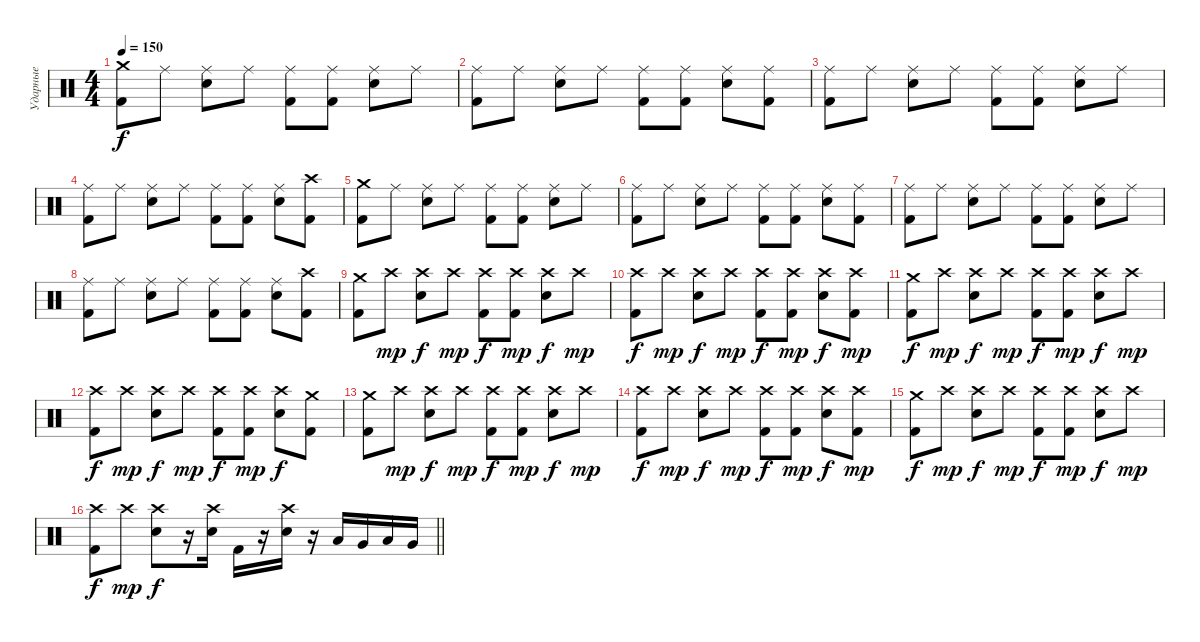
\track ("Ударные" "Ударные") {instrument percussion}
\staff {score}
\articulation defaults
\ts (4 4)
\tempo 150
\clef neutral
\ks c
("Crash medium (hit)" "Kick (hit) 2").8{dy f} "Ride (middle)".8 ("Ride (middle)" "Electric Snare (hit)").8 "Ride (middle)".8 ("Ride (middle)" "Kick (hit) 2").8 ("Ride (middle)" "Kick (hit) 2").8 ("Ride (middle)" "Electric Snare (hit)").8 "Ride (middle)".8 |
("Ride (middle)" "Kick (hit) 2").8 "Ride (middle)".8 ("Ride (middle)" "Electric Snare (hit)").8 "Ride (middle)".8 ("Ride (middle)" "Kick (hit) 2").8 ("Ride (middle)" "Kick (hit) 2").8 ("Ride (middle)" "Electric Snare (hit)").8 ("Ride (middle)" "Kick (hit) 2").8 |
("Ride (middle)" "Kick (hit) 2").8 "Ride (middle)".8 ("Ride (middle)" "Electric Snare (hit)").8 "Ride (middle)".8 ("Ride (middle)" "Kick (hit) 2").8 ("Ride (middle)" "Kick (hit) 2").8 ("Ride (middle)" "Electric Snare (hit)").8 "Ride (middle)".8 |
("Ride (middle)" "Kick (hit) 2").8 "Ride (middle)".8 ("Ride (middle)" "Electric Snare (hit)").8 "Ride (middle)".8 ("Ride (middle)" "Kick (hit) 2").8 ("Ride (middle)" "Kick (hit) 2").8 ("Ride (middle)" "Electric Snare (hit)").8 ("Crash high (hit)" "Kick (hit) 2").8 |
("Crash medium (hit)" "Kick (hit) 2").8 "Ride (middle)".8 ("Ride (middle)" "Electric Snare (hit)").8 "Ride (middle)".8 ("Ride (middle)" "Kick (hit) 2").8 ("Ride (middle)" "Kick (hit) 2").8 ("Ride (middle)" "Electric Snare (hit)").8 "Ride (middle)".8 |
("Ride (middle)" "Kick (hit) 2").8 "Ride (middle)".8 ("Ride (middle)" "Electric Snare (hit)").8 "Ride (middle)".8 ("Ride (middle)" "Kick (hit) 2").8 ("Ride (middle)" "Kick (hit) 2").8 ("Ride (middle)" "Electric Snare (hit)").8 ("Ride (middle)" "Kick (hit) 2").8 |
("Ride (middle)" "Kick (hit) 2").8 "Ride (middle)".8 ("Ride (middle)" "Electric Snare (hit)").8 "Ride (middle)".8 ("Ride (middle)" "Kick (hit) 2").8 ("Ride (middle)" "Kick (hit) 2").8 ("Ride (middle)" "Electric Snare (hit)").8 "Ride (middle)".8 |
("Ride (middle)" "Kick (hit) 2").8 "Ride (middle)".8 ("Ride (middle)" "Electric Snare (hit)").8 "Ride (middle)".8 ("Ride (middle)" "Kick (hit) 2").8 ("Ride (middle)" "Kick (hit) 2").8 ("Ride (middle)" "Electric Snare (hit)").8 ("Crash high (hit)" "Kick (hit) 2").8 |
("Crash medium (hit)" "Kick (hit) 2").8 "Crash high (hit)".8{dy mp} ("Crash high (hit)" "Electric Snare (hit)").8{dy f} "Crash high (hit)".8{dy mp} ("Crash high (hit)" "Kick (hit) 2").8{dy f} ("Crash high (hit)" "Kick (hit) 2").8{dy mp} ("Crash high (hit)" "Electric Snare (hit)").8{dy f} "Crash high (hit)".8{dy mp} |
("Crash high (hit)" "Kick (hit) 2").8{dy f} "Crash high (hit)".8{dy mp} ("Crash high (hit)" "Electric Snare (hit)").8{dy f} "Crash high (hit)".8{dy mp} ("Crash high (hit)" "Kick (hit) 2").8{dy f} ("Crash high (hit)" "Kick (hit) 2").8{dy mp} ("Crash high (hit)" "Electric Snare (hit)").8{dy f} ("Crash high (hit)" "Kick (hit) 2").8{dy mp} |
("Crash medium (hit)" "Kick (hit) 2").8{dy f} "Crash high (hit)".8{dy mp} ("Crash high (hit)" "Electric Snare (hit)").8{dy f} "Crash high (hit)".8{dy mp} ("Crash high (hit)" "Kick (hit) 2").8{dy f} ("Crash high (hit)" "Kick (hit) 2").8{dy mp} ("Crash high (hit)" "Electric Snare (hit)").8{dy f} "Crash high (hit)".8{dy mp} |
("Crash high (hit)" "Kick (hit) 2").8{dy f} "Crash high (hit)".8{dy mp} ("Crash high (hit)" "Electric Snare (hit)").8{dy f} "Crash high (hit)".8{dy mp} ("Crash high (hit)" "Kick (hit) 2").8{dy f} ("Crash high (hit)" "Kick (hit) 2").8{dy mp} ("Crash high (hit)" "Electric Snare (hit)").8{dy f} ("Crash medium (hit)" "Kick (hit) 2").8 |
("Crash medium (hit)" "Kick (hit) 2").8 "Crash high (hit)".8{dy mp} ("Crash high (hit)" "Electric Snare (hit)").8{dy f} "Crash high (hit)".8{dy mp} ("Crash high (hit)" "Kick (hit) 2").8{dy f} ("Crash high (hit)" "Kick (hit) 2").8{dy mp} ("Crash high (hit)" "Electric Snare (hit)").8{dy f} "Crash high (hit)".8{dy mp} |
("Crash high (hit)" "Kick (hit) 2").8{dy f} "Crash high (hit)".8{dy mp} ("Crash high (hit)" "Electric Snare (hit)").8{dy f} "Crash high (hit)".8{dy mp} ("Crash high (hit)" "Kick (hit) 2").8{dy f} ("Crash high (hit)" "Kick (hit) 2").8{dy mp} ("Crash high (hit)" "Electric Snare (hit)").8{dy f} ("Crash high (hit)" "Kick (hit) 2").8{dy mp} |
("Crash medium (hit)" "Kick (hit) 2").8{dy f} "Crash high (hit)".8{dy mp} ("Crash high (hit)" "Electric Snare (hit)").8{dy f} "Crash high (hit)".8{dy mp} ("Crash high (hit)" "Kick (hit) 2").8{dy f} ("Crash high (hit)" "Kick (hit) 2").8{dy mp} ("Crash high (hit)" "Electric Snare (hit)").8{dy f} "Crash high (hit)".8{dy mp} |
\barLineRight lightlight
("Crash high (hit)" "Kick (hit) 2").8{dy f} "Crash high (hit)".8{dy mp} ("Crash high (hit)" "Electric Snare (hit)").8{dy f} r.16 ("Crash high (hit)" "Electric Snare (hit)").16 "Kick (hit) 2".16 r.16 ("Crash high (hit)" "Electric Snare (hit)").16 r.16 "Low Floor Tom (hit)".16 "Very Low Tom (hit)".16 "Low Floor Tom (hit)".16 "Very Low Tom (hit)".16
